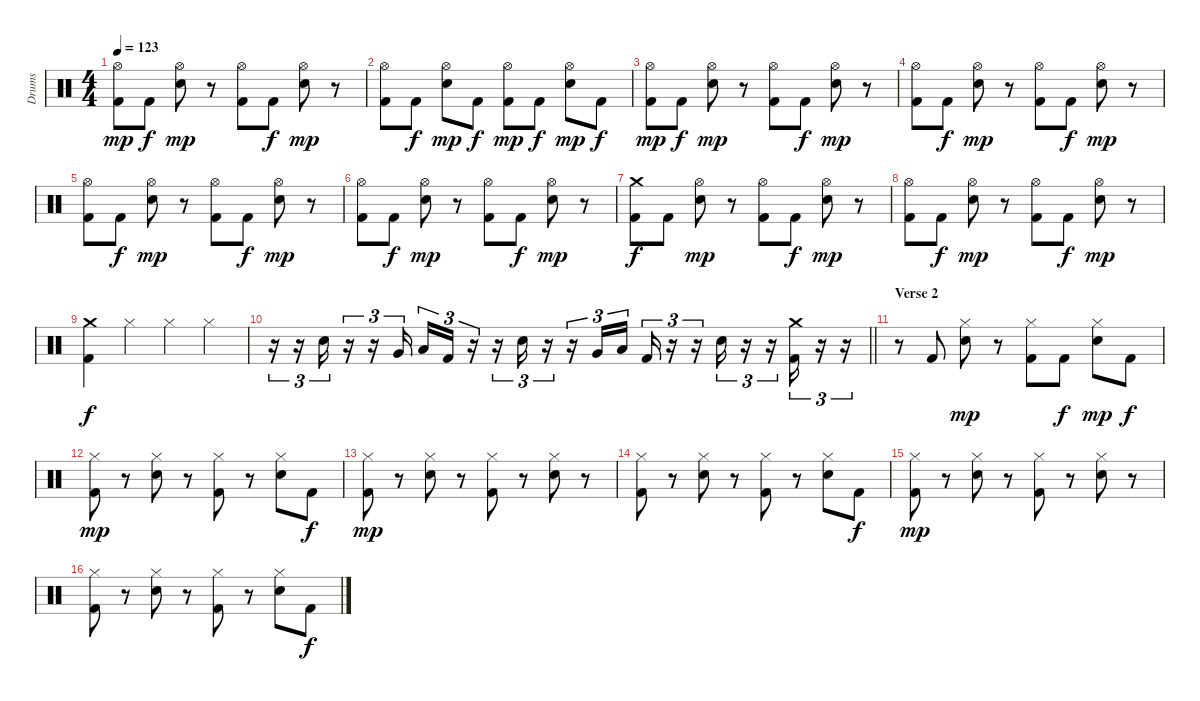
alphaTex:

\track ("Drums" "Drums") {instrument percussion}
\staff {score}
\articulation defaults
\ts (4 4)
\tempo 123
\clef neutral
\ks c
("Hi-Hat (open)" "Kick (hit) 2").8{dy mp} "Kick (hit) 2".8{dy f} ("Hi-Hat (open)" "Electric Snare (hit)").8{dy mp} r.8 ("Hi-Hat (open)" "Kick (hit) 2").8 "Kick (hit) 2".8{dy f} ("Hi-Hat (open)" "Electric Snare (hit)").8{dy mp} r.8 |
("Hi-Hat (open)" "Kick (hit) 2").8 "Kick (hit) 2".8{dy f} ("Hi-Hat (open)" "Electric Snare (hit)").8{dy mp} "Kick (hit) 2".8{dy f} ("Hi-Hat (open)" "Kick (hit) 2").8{dy mp} "Kick (hit) 2".8{dy f} ("Hi-Hat (open)" "Electric Snare (hit)").8{dy mp} "Kick (hit) 2".8{dy f} |
("Hi-Hat (open)" "Kick (hit) 2").8{dy mp} "Kick (hit) 2".8{dy f} ("Hi-Hat (open)" "Electric Snare (hit)").8{dy mp} r.8 ("Hi-Hat (open)" "Kick (hit) 2").8 "Kick (hit) 2".8{dy f} ("Hi-Hat (open)" "Electric Snare (hit)").8{dy mp} r.8 |
("Hi-Hat (open)" "Kick (hit) 2").8 "Kick (hit) 2".8{dy f} ("Hi-Hat (open)" "Electric Snare (hit)").8{dy mp} r.8 ("Hi-Hat (open)" "Kick (hit) 2").8 "Kick (hit) 2".8{dy f} ("Hi-Hat (open)" "Electric Snare (hit)").8{dy mp} r.8 |
("Hi-Hat (open)" "Kick (hit) 2").8 "Kick (hit) 2".8{dy f} ("Hi-Hat (open)" "Electric Snare (hit)").8{dy mp} r.8 ("Hi-Hat (open)" "Kick (hit) 2").8 "Kick (hit) 2".8{dy f} ("Hi-Hat (open)" "Electric Snare (hit)").8{dy mp} r.8 |
("Hi-Hat (open)" "Kick (hit) 2").8 "Kick (hit) 2".8{dy f} ("Hi-Hat (open)" "Electric Snare (hit)").8{dy mp} r.8 ("Hi-Hat (open)" "Kick (hit) 2").8 "Kick (hit) 2".8{dy f} ("Hi-Hat (open)" "Electric Snare (hit)").8{dy mp} r.8 |
("Crash medium (hit)" "Kick (hit) 2").8{dy f} "Kick (hit) 2".8 ("Hi-Hat (open)" "Electric Snare (hit)").8{dy mp} r.8 ("Hi-Hat (open)" "Kick (hit) 2").8 "Kick (hit) 2".8{dy f} ("Hi-Hat (open)" "Electric Snare (hit)").8{dy mp} r.8 |
("Hi-Hat (open)" "Kick (hit) 2").8 "Kick (hit) 2".8{dy f} ("Hi-Hat (open)" "Electric Snare (hit)").8{dy mp} r.8 ("Hi-Hat (open)" "Kick (hit) 2").8 "Kick (hit) 2".8{dy f} ("Hi-Hat (open)" "Electric Snare (hit)").8{dy mp} r.8 |
("Crash medium (hit)" "Kick (hit) 2").4{dy f} "Hi-Hat (closed)".4 "Hi-Hat (closed)".4 "Hi-Hat (closed)".4 |
\barLineRight lightlight
r.16{tu (3 2)} r.16{tu (3 2)} "Snare (hit) 2".16{tu (3 2)} r.16{tu (3 2)} r.16{tu (3 2)} "Very Low Tom (hit)".16{tu (3 2)} "Low Floor Tom (hit)".16{tu (3 2)} "Kick (hit) 2".16{tu (3 2)} r.16{tu (3 2)} r.16{tu (3 2)} "Snare (hit) 2".16{tu (3 2)} r.16{tu (3 2)} r.16{tu (3 2)} "Very Low Tom (hit)".16{tu (3 2)} "Low Floor Tom (hit)".16{tu (3 2) beam splitsecondary} "Kick (hit) 2".16{tu (3 2)} r.16{tu (3 2)} r.16{tu (3 2)} "Snare (hit) 2".16{tu (3 2)} r.16{tu (3 2)} r.16{tu (3 2)} ("Crash medium (hit)" "Kick (hit) 2").16{tu (3 2)} r.16{tu (3 2)} r.16{tu (3 2)} |
\section ("" "Verse 2")
r.8 "Kick (hit) 2".8 ("Hi-Hat (closed)" "Snare (hit) 2").8{dy mp} r.8 ("Hi-Hat (closed)" "Kick (hit) 2").8 "Kick (hit) 2".8{dy f} ("Hi-Hat (closed)" "Snare (hit) 2").8{dy mp} "Kick (hit) 2".8{dy f} |
("Hi-Hat (closed)" "Kick (hit) 2").8{dy mp} r.8 ("Hi-Hat (closed)" "Snare (hit) 2").8 r.8 ("Hi-Hat (closed)" "Kick (hit) 2").8 r.8 ("Hi-Hat (closed)" "Snare (hit) 2").8 "Kick (hit) 2".8{dy f} |
("Hi-Hat (closed)" "Kick (hit) 2").8{dy mp} r.8 ("Hi-Hat (closed)" "Snare (hit) 2").8 r.8 ("Hi-Hat (closed)" "Kick (hit) 2").8 r.8 ("Hi-Hat (closed)" "Snare (hit) 2").8 r.8 |
("Hi-Hat (closed)" "Kick (hit) 2").8 r.8 ("Hi-Hat (closed)" "Snare (hit) 2").8 r.8 ("Hi-Hat (closed)" "Kick (hit) 2").8 r.8 ("Hi-Hat (closed)" "Snare (hit) 2").8 "Kick (hit) 2".8{dy f} |
("Hi-Hat (closed)" "Kick (hit) 2").8{dy mp} r.8 ("Hi-Hat (closed)" "Snare (hit) 2").8 r.8 ("Hi-Hat (closed)" "Kick (hit) 2").8 r.8 ("Hi-Hat (closed)" "Snare (hit) 2").8 r.8 |
("Hi-Hat (closed)" "Kick (hit) 2").8 r.8 ("Hi-Hat (closed)" "Snare (hit) 2").8 r.8 ("Hi-Hat (closed)" "Kick (hit) 2").8 r.8 ("Hi-Hat (closed)" "Snare (hit) 2").8 "Kick (hit) 2".8{dy f}
